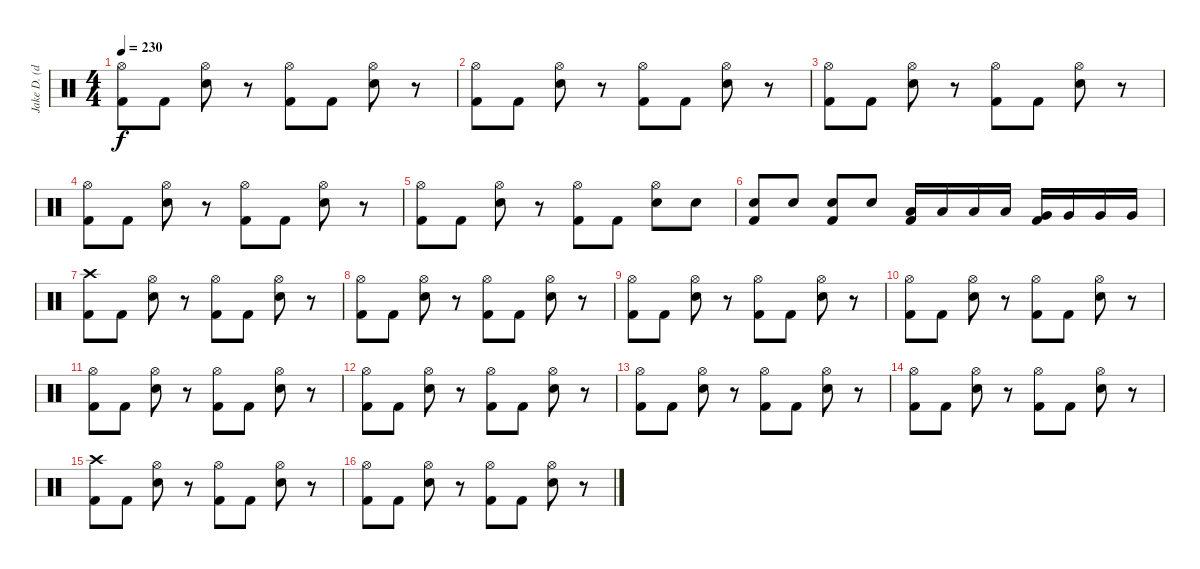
\track ("Jake D. (drums)" "Jake D. (d") {instrument percussion}
\staff {score}
\articulation defaults
\ts (4 4)
\tempo 230
\clef neutral
\ks c
("Hi-Hat (open)" "Kick (hit) 2").8{dy f} "Kick (hit) 2".8 ("Hi-Hat (open)" "Electric Snare (hit)").8 r.8 ("Hi-Hat (open)" "Kick (hit) 2").8 "Kick (hit) 2".8 ("Hi-Hat (open)" "Electric Snare (hit)").8 r.8 |
("Hi-Hat (open)" "Kick (hit) 2").8 "Kick (hit) 2".8 ("Hi-Hat (open)" "Electric Snare (hit)").8 r.8 ("Hi-Hat (open)" "Kick (hit) 2").8 "Kick (hit) 2".8 ("Hi-Hat (open)" "Electric Snare (hit)").8 r.8 |
("Hi-Hat (open)" "Kick (hit) 2").8 "Kick (hit) 2".8 ("Hi-Hat (open)" "Electric Snare (hit)").8 r.8 ("Hi-Hat (open)" "Kick (hit) 2").8 "Kick (hit) 2".8 ("Hi-Hat (open)" "Electric Snare (hit)").8 r.8 |
("Hi-Hat (open)" "Kick (hit) 2").8 "Kick (hit) 2".8 ("Hi-Hat (open)" "Electric Snare (hit)").8 r.8 ("Hi-Hat (open)" "Kick (hit) 2").8 "Kick (hit) 2".8 ("Hi-Hat (open)" "Electric Snare (hit)").8 r.8 |
("Hi-Hat (open)" "Kick (hit) 2").8 "Kick (hit) 2".8 ("Hi-Hat (open)" "Electric Snare (hit)").8 r.8 ("Hi-Hat (open)" "Kick (hit) 2").8 "Kick (hit) 2".8 ("Hi-Hat (open)" "Electric Snare (hit)").8 "Electric Snare (hit)".8 |
("Electric Snare (hit)" "Kick (hit) 2").8 "Electric Snare (hit)".8 ("Electric Snare (hit)" "Kick (hit) 2").8 "Electric Snare (hit)".8 ("Low Tom (hit)" "Kick (hit) 2").16 "Low Tom (hit)".16 "Low Tom (hit)".16 "Low Tom (hit)".16 ("Very Low Tom (hit)" "Kick (hit) 2").16 "Very Low Tom (hit)".16 "Very Low Tom (hit)".16 "Very Low Tom (hit)".16 |
("Crash high (hit)" "Kick (hit) 2").8 "Kick (hit) 2".8 ("Hi-Hat (open)" "Electric Snare (hit)").8 r.8 ("Hi-Hat (open)" "Kick (hit) 2").8 "Kick (hit) 2".8 ("Hi-Hat (open)" "Electric Snare (hit)").8 r.8 |
("Hi-Hat (open)" "Kick (hit) 2").8 "Kick (hit) 2".8 ("Hi-Hat (open)" "Electric Snare (hit)").8 r.8 ("Hi-Hat (open)" "Kick (hit) 2").8 "Kick (hit) 2".8 ("Hi-Hat (open)" "Electric Snare (hit)").8 r.8 |
("Hi-Hat (open)" "Kick (hit) 2").8 "Kick (hit) 2".8 ("Hi-Hat (open)" "Electric Snare (hit)").8 r.8 ("Hi-Hat (open)" "Kick (hit) 2").8 "Kick (hit) 2".8 ("Hi-Hat (open)" "Electric Snare (hit)").8 r.8 |
("Hi-Hat (open)" "Kick (hit) 2").8 "Kick (hit) 2".8 ("Hi-Hat (open)" "Electric Snare (hit)").8 r.8 ("Hi-Hat (open)" "Kick (hit) 2").8 "Kick (hit) 2".8 ("Hi-Hat (open)" "Electric Snare (hit)").8 r.8 |
("Hi-Hat (open)" "Kick (hit) 2").8 "Kick (hit) 2".8 ("Hi-Hat (open)" "Electric Snare (hit)").8 r.8 ("Hi-Hat (open)" "Kick (hit) 2").8 "Kick (hit) 2".8 ("Hi-Hat (open)" "Electric Snare (hit)").8 r.8 |
("Hi-Hat (open)" "Kick (hit) 2").8 "Kick (hit) 2".8 ("Hi-Hat (open)" "Electric Snare (hit)").8 r.8 ("Hi-Hat (open)" "Kick (hit) 2").8 "Kick (hit) 2".8 ("Hi-Hat (open)" "Electric Snare (hit)").8 r.8 |
("Hi-Hat (open)" "Kick (hit) 2").8 "Kick (hit) 2".8 ("Hi-Hat (open)" "Electric Snare (hit)").8 r.8 ("Hi-Hat (open)" "Kick (hit) 2").8 "Kick (hit) 2".8 ("Hi-Hat (open)" "Electric Snare (hit)").8 r.8 |
("Hi-Hat (open)" "Kick (hit) 2").8 "Kick (hit) 2".8 ("Hi-Hat (open)" "Electric Snare (hit)").8 r.8 ("Hi-Hat (open)" "Kick (hit) 2").8 "Kick (hit) 2".8 ("Hi-Hat (open)" "Electric Snare (hit)").8 r.8 |
("Crash high (hit)" "Kick (hit) 2").8 "Kick (hit) 2".8 ("Hi-Hat (open)" "Electric Snare (hit)").8 r.8 ("Hi-Hat (open)" "Kick (hit) 2").8 "Kick (hit) 2".8 ("Hi-Hat (open)" "Electric Snare (hit)").8 r.8 |
("Hi-Hat (open)" "Kick (hit) 2").8 "Kick (hit) 2".8 ("Hi-Hat (open)" "Electric Snare (hit)").8 r.8 ("Hi-Hat (open)" "Kick (hit) 2").8 "Kick (hit) 2".8 ("Hi-Hat (open)" "Electric Snare (hit)").8 r.8
